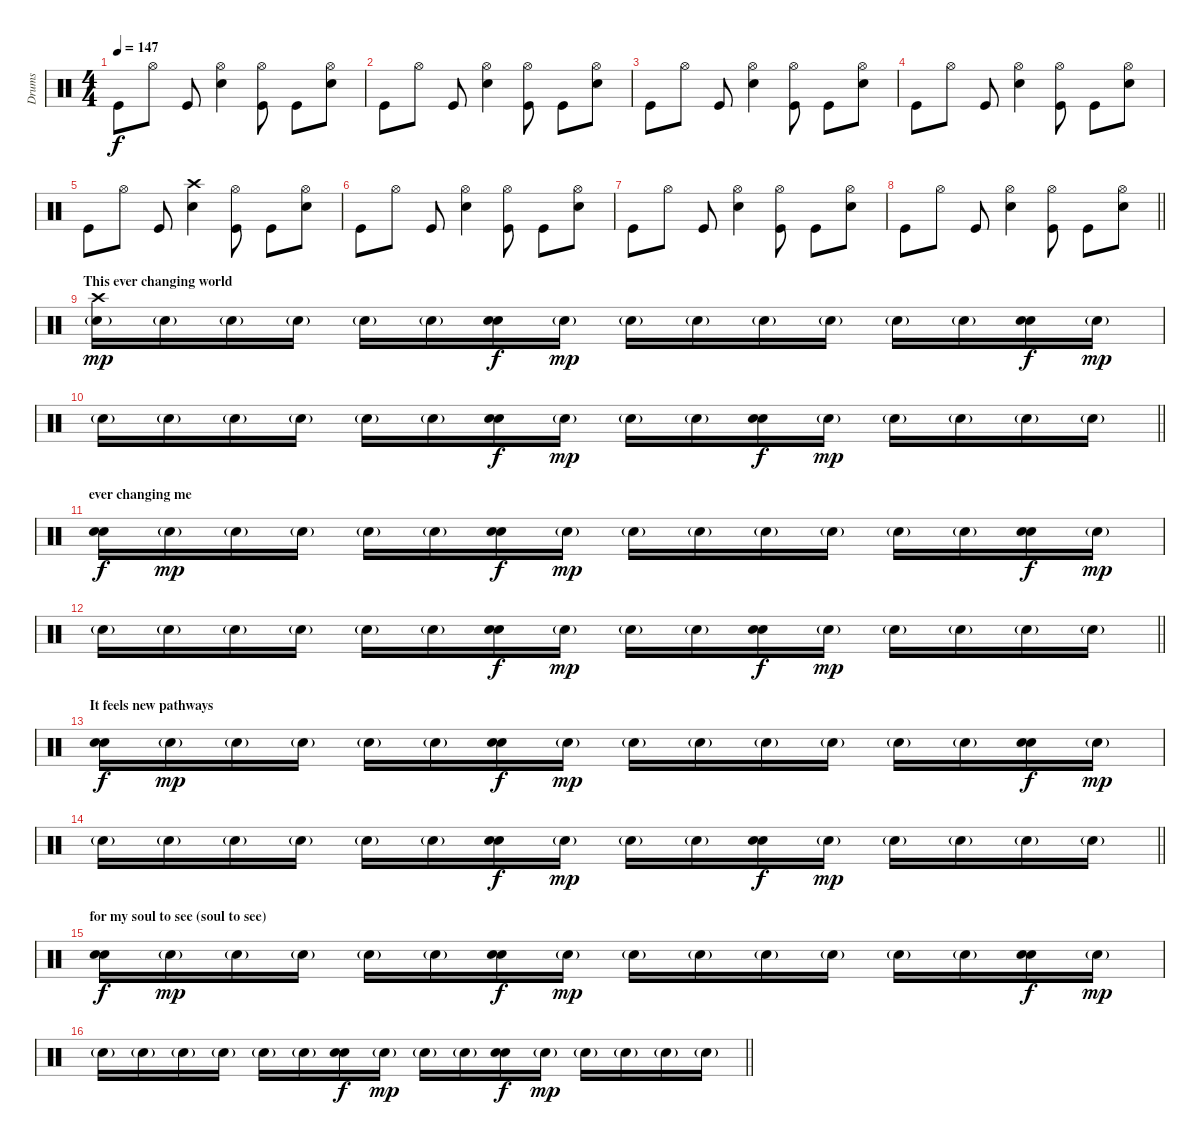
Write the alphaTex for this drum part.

\track ("Drums" "Drums") {instrument percussion}
\staff {score}
\articulation defaults
\ts (4 4)
\tempo 147
\clef neutral
\ks c "Kick (hit)".8{dy f} "Hi-Hat (open)".8 "Kick (hit)".8
("Hi-Hat (open)" "Snare (hit) 2").4 ("Hi-Hat (open)" "Kick (hit)").8 "Kick (hit)".8 ("Hi-Hat (open)" "Snare (hit) 2").8 |
"Kick (hit)".8 "Hi-Hat (open)".8 "Kick (hit)".8 ("Hi-Hat (open)" "Snare (hit) 2").4 ("Hi-Hat (open)" "Kick (hit)").8 "Kick (hit)".8 ("Hi-Hat (open)" "Snare (hit) 2").8 |
"Kick (hit)".8 "Hi-Hat (open)".8 "Kick (hit)".8 ("Hi-Hat (open)" "Snare (hit) 2").4 ("Hi-Hat (open)" "Kick (hit)").8 "Kick (hit)".8 ("Hi-Hat (open)" "Snare (hit) 2").8 |
"Kick (hit)".8 "Hi-Hat (open)".8 "Kick (hit)".8 ("Hi-Hat (open)" "Snare (hit) 2").4 ("Hi-Hat (open)" "Kick (hit)").8 "Kick (hit)".8 ("Hi-Hat (open)" "Snare (hit) 2").8 |
"Kick (hit)".8 "Hi-Hat (open)".8 "Kick (hit)".8 ("Crash high (hit)" "Snare (hit) 2").4 ("Hi-Hat (open)" "Kick (hit)").8 "Kick (hit)".8 ("Hi-Hat (open)" "Snare (hit) 2").8 |
"Kick (hit)".8 "Hi-Hat (open)".8 "Kick (hit)".8 ("Hi-Hat (open)" "Snare (hit) 2").4 ("Hi-Hat (open)" "Kick (hit)").8 "Kick (hit)".8 ("Hi-Hat (open)" "Snare (hit) 2").8 |
"Kick (hit)".8 "Hi-Hat (open)".8 "Kick (hit)".8 ("Hi-Hat (open)" "Snare (hit) 2").4 ("Hi-Hat (open)" "Kick (hit)").8 "Kick (hit)".8 ("Hi-Hat (open)" "Snare (hit) 2").8 |
\barLineRight lightlight "Kick (hit)".8 "Hi-Hat (open)".8 "Kick (hit)".8
("Hi-Hat (open)" "Snare (hit) 2").4 ("Hi-Hat (open)" "Kick (hit)").8 "Kick (hit)".8 ("Hi-Hat (open)" "Snare (hit) 2").8 |
\section ("" "This ever changing world")
("Crash high (hit)" "Snare (hit) 2"{g}).16{dy mp} "Snare (hit) 2"{g}.16 "Snare (hit) 2"{g}.16 "Snare (hit) 2"{g}.16 "Snare (hit) 2"{g}.16 "Snare (hit) 2"{g}.16 ("Electric Snare (hit)" "Snare (hit) 2").16{dy f} "Snare (hit) 2"{g}.16{dy mp} "Snare (hit) 2"{g}.16 "Snare (hit) 2"{g}.16 "Snare (hit) 2"{g}.16 "Snare (hit) 2"{g}.16 "Snare (hit) 2"{g}.16 "Snare (hit) 2"{g}.16 ("Electric Snare (hit)" "Snare (hit) 2").16{dy f} "Snare (hit) 2"{g}.16{dy mp} |
\barLineRight lightlight "Snare (hit) 2"{g}.16 "Snare (hit) 2"{g}.16 "Snare (hit) 2"{g}.16 "Snare (hit) 2"{g}.16 "Snare (hit) 2"{g}.16 "Snare (hit) 2"{g}.16
("Electric Snare (hit)" "Snare (hit) 2").16{dy f} "Snare (hit) 2"{g}.16{dy mp} "Snare (hit) 2"{g}.16 "Snare (hit) 2"{g}.16 ("Electric Snare (hit)" "Snare (hit) 2").16{dy f} "Snare (hit) 2"{g}.16{dy mp} "Snare (hit) 2"{g}.16 "Snare (hit) 2"{g}.16 "Snare (hit) 2"{g}.16 "Snare (hit) 2"{g}.16 |
\section ("" "ever changing me ")
("Electric Snare (hit)" "Snare (hit) 2").16{dy f} "Snare (hit) 2"{g}.16{dy mp} "Snare (hit) 2"{g}.16 "Snare (hit) 2"{g}.16 "Snare (hit) 2"{g}.16 "Snare (hit) 2"{g}.16 ("Electric Snare (hit)" "Snare (hit) 2").16{dy f} "Snare (hit) 2"{g}.16{dy mp} "Snare (hit) 2"{g}.16 "Snare (hit) 2"{g}.16 "Snare (hit) 2"{g}.16 "Snare (hit) 2"{g}.16 "Snare (hit) 2"{g}.16 "Snare (hit) 2"{g}.16 ("Electric Snare (hit)" "Snare (hit) 2").16{dy f} "Snare (hit) 2"{g}.16{dy mp} |
\barLineRight lightlight "Snare (hit) 2"{g}.16 "Snare (hit) 2"{g}.16 "Snare (hit) 2"{g}.16 "Snare (hit) 2"{g}.16 "Snare (hit) 2"{g}.16 "Snare (hit) 2"{g}.16
("Electric Snare (hit)" "Snare (hit) 2").16{dy f} "Snare (hit) 2"{g}.16{dy mp} "Snare (hit) 2"{g}.16 "Snare (hit) 2"{g}.16 ("Electric Snare (hit)" "Snare (hit) 2").16{dy f} "Snare (hit) 2"{g}.16{dy mp} "Snare (hit) 2"{g}.16 "Snare (hit) 2"{g}.16 "Snare (hit) 2"{g}.16 "Snare (hit) 2"{g}.16 |
\section ("" "It feels new pathways ")
("Electric Snare (hit)" "Snare (hit) 2").16{dy f} "Snare (hit) 2"{g}.16{dy mp} "Snare (hit) 2"{g}.16 "Snare (hit) 2"{g}.16 "Snare (hit) 2"{g}.16 "Snare (hit) 2"{g}.16 ("Electric Snare (hit)" "Snare (hit) 2").16{dy f} "Snare (hit) 2"{g}.16{dy mp} "Snare (hit) 2"{g}.16 "Snare (hit) 2"{g}.16 "Snare (hit) 2"{g}.16 "Snare (hit) 2"{g}.16 "Snare (hit) 2"{g}.16 "Snare (hit) 2"{g}.16 ("Electric Snare (hit)" "Snare (hit) 2").16{dy f} "Snare (hit) 2"{g}.16{dy mp} |
\barLineRight lightlight "Snare (hit) 2"{g}.16 "Snare (hit) 2"{g}.16 "Snare (hit) 2"{g}.16 "Snare (hit) 2"{g}.16 "Snare (hit) 2"{g}.16 "Snare (hit) 2"{g}.16
("Electric Snare (hit)" "Snare (hit) 2").16{dy f} "Snare (hit) 2"{g}.16{dy mp} "Snare (hit) 2"{g}.16 "Snare (hit) 2"{g}.16 ("Electric Snare (hit)" "Snare (hit) 2").16{dy f} "Snare (hit) 2"{g}.16{dy mp} "Snare (hit) 2"{g}.16 "Snare (hit) 2"{g}.16 "Snare (hit) 2"{g}.16 "Snare (hit) 2"{g}.16 |
\section ("" "for my soul to see (soul to see) ")
("Electric Snare (hit)" "Snare (hit) 2").16{dy f} "Snare (hit) 2"{g}.16{dy mp} "Snare (hit) 2"{g}.16 "Snare (hit) 2"{g}.16 "Snare (hit) 2"{g}.16 "Snare (hit) 2"{g}.16 ("Electric Snare (hit)" "Snare (hit) 2").16{dy f} "Snare (hit) 2"{g}.16{dy mp} "Snare (hit) 2"{g}.16 "Snare (hit) 2"{g}.16 "Snare (hit) 2"{g}.16 "Snare (hit) 2"{g}.16 "Snare (hit) 2"{g}.16 "Snare (hit) 2"{g}.16 ("Electric Snare (hit)" "Snare (hit) 2").16{dy f} "Snare (hit) 2"{g}.16{dy mp} |
\barLineRight lightlight "Snare (hit) 2"{g}.16 "Snare (hit) 2"{g}.16 "Snare (hit) 2"{g}.16 "Snare (hit) 2"{g}.16 "Snare (hit) 2"{g}.16 "Snare (hit) 2"{g}.16
("Electric Snare (hit)" "Snare (hit) 2").16{dy f} "Snare (hit) 2"{g}.16{dy mp} "Snare (hit) 2"{g}.16 "Snare (hit) 2"{g}.16 ("Electric Snare (hit)" "Snare (hit) 2").16{dy f} "Snare (hit) 2"{g}.16{dy mp} "Snare (hit) 2"{g}.16 "Snare (hit) 2"{g}.16 "Snare (hit) 2"{g}.16 "Snare (hit) 2"{g}.16
